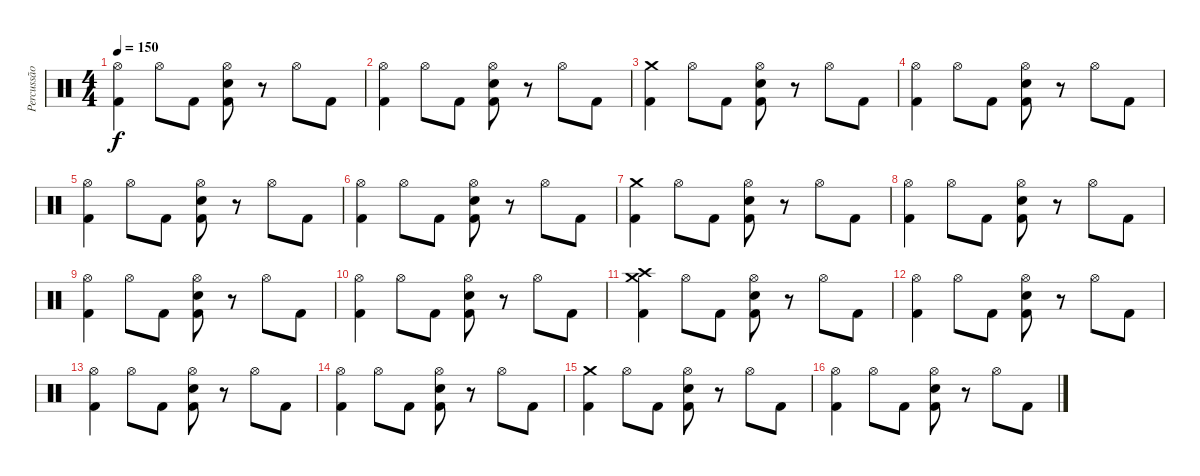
\track ("Percussão" "Percussão") {instrument percussion}
\staff {score}
\articulation defaults
\ts (4 4)
\tempo 150
\clef neutral
\ks c
("Hi-Hat (open)" "Kick (hit) 2").4{dy f} "Hi-Hat (open)".8 "Kick (hit) 2".8 ("Hi-Hat (open)" "Snare (hit) 2" "Kick (hit) 2").8 r.8 "Hi-Hat (open)".8 "Kick (hit) 2".8 |
("Hi-Hat (open)" "Kick (hit) 2").4 "Hi-Hat (open)".8 "Kick (hit) 2".8 ("Hi-Hat (open)" "Snare (hit) 2" "Kick (hit) 2").8 r.8 "Hi-Hat (open)".8 "Kick (hit) 2".8 |
("Crash medium (hit)" "Kick (hit) 2").4 "Hi-Hat (open)".8 "Kick (hit) 2".8 ("Hi-Hat (open)" "Snare (hit) 2" "Kick (hit) 2").8 r.8 "Hi-Hat (open)".8 "Kick (hit) 2".8 |
("Hi-Hat (open)" "Kick (hit) 2").4 "Hi-Hat (open)".8 "Kick (hit) 2".8 ("Hi-Hat (open)" "Snare (hit) 2" "Kick (hit) 2").8 r.8 "Hi-Hat (open)".8 "Kick (hit) 2".8 |
("Hi-Hat (open)" "Kick (hit) 2").4 "Hi-Hat (open)".8 "Kick (hit) 2".8 ("Hi-Hat (open)" "Snare (hit) 2" "Kick (hit) 2").8 r.8 "Hi-Hat (open)".8 "Kick (hit) 2".8 |
("Hi-Hat (open)" "Kick (hit) 2").4 "Hi-Hat (open)".8 "Kick (hit) 2".8 ("Hi-Hat (open)" "Snare (hit) 2" "Kick (hit) 2").8 r.8 "Hi-Hat (open)".8 "Kick (hit) 2".8 |
("Crash medium (hit)" "Kick (hit) 2").4 "Hi-Hat (open)".8 "Kick (hit) 2".8 ("Hi-Hat (open)" "Snare (hit) 2" "Kick (hit) 2").8 r.8 "Hi-Hat (open)".8 "Kick (hit) 2".8 |
("Hi-Hat (open)" "Kick (hit) 2").4 "Hi-Hat (open)".8 "Kick (hit) 2".8 ("Hi-Hat (open)" "Snare (hit) 2" "Kick (hit) 2").8 r.8 "Hi-Hat (open)".8 "Kick (hit) 2".8 |
("Hi-Hat (open)" "Kick (hit) 2").4 "Hi-Hat (open)".8 "Kick (hit) 2".8 ("Hi-Hat (open)" "Snare (hit) 2" "Kick (hit) 2").8 r.8 "Hi-Hat (open)".8 "Kick (hit) 2".8 |
("Hi-Hat (open)" "Kick (hit) 2").4 "Hi-Hat (open)".8 "Kick (hit) 2".8 ("Hi-Hat (open)" "Snare (hit) 2" "Kick (hit) 2").8 r.8 "Hi-Hat (open)".8 "Kick (hit) 2".8 |
("Crash medium (hit)" "Crash high (hit)" "Kick (hit) 2").4 "Hi-Hat (open)".8 "Kick (hit) 2".8 ("Hi-Hat (open)" "Snare (hit) 2" "Kick (hit) 2").8 r.8 "Hi-Hat (open)".8 "Kick (hit) 2".8 |
("Hi-Hat (open)" "Kick (hit) 2").4 "Hi-Hat (open)".8 "Kick (hit) 2".8 ("Hi-Hat (open)" "Snare (hit) 2" "Kick (hit) 2").8 r.8 "Hi-Hat (open)".8 "Kick (hit) 2".8 |
("Hi-Hat (open)" "Kick (hit) 2").4 "Hi-Hat (open)".8 "Kick (hit) 2".8 ("Hi-Hat (open)" "Snare (hit) 2" "Kick (hit) 2").8 r.8 "Hi-Hat (open)".8 "Kick (hit) 2".8 |
("Hi-Hat (open)" "Kick (hit) 2").4 "Hi-Hat (open)".8 "Kick (hit) 2".8 ("Hi-Hat (open)" "Snare (hit) 2" "Kick (hit) 2").8 r.8 "Hi-Hat (open)".8 "Kick (hit) 2".8 |
("Crash medium (hit)" "Kick (hit) 2").4 "Hi-Hat (open)".8 "Kick (hit) 2".8 ("Hi-Hat (open)" "Snare (hit) 2" "Kick (hit) 2").8 r.8 "Hi-Hat (open)".8 "Kick (hit) 2".8 |
("Hi-Hat (open)" "Kick (hit) 2").4 "Hi-Hat (open)".8 "Kick (hit) 2".8 ("Hi-Hat (open)" "Snare (hit) 2" "Kick (hit) 2").8 r.8 "Hi-Hat (open)".8 "Kick (hit) 2".8
